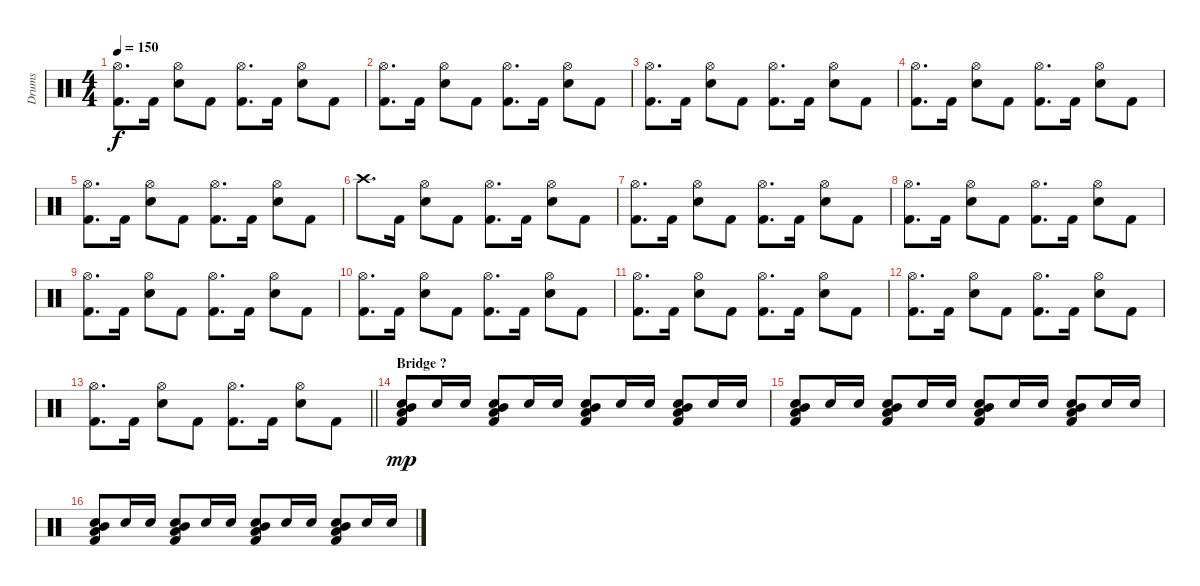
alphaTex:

\track ("Drums" "Drums") {instrument percussion}
\staff {score}
\articulation defaults
\ts (4 4)
\tempo 150
\clef neutral
\ks c
("Kick (hit) 2" "Hi-Hat (open)").8{d dy f} "Kick (hit) 2".16 ("Snare (hit) 2" "Hi-Hat (open)").8 "Kick (hit) 2".8 ("Kick (hit) 2" "Hi-Hat (open)").8{d} "Kick (hit) 2".16 ("Snare (hit) 2" "Hi-Hat (open)").8 "Kick (hit) 2".8 |
("Kick (hit) 2" "Hi-Hat (open)").8{d} "Kick (hit) 2".16 ("Snare (hit) 2" "Hi-Hat (open)").8 "Kick (hit) 2".8 ("Kick (hit) 2" "Hi-Hat (open)").8{d} "Kick (hit) 2".16 ("Snare (hit) 2" "Hi-Hat (open)").8 "Kick (hit) 2".8 |
("Kick (hit) 2" "Hi-Hat (open)").8{d} "Kick (hit) 2".16 ("Snare (hit) 2" "Hi-Hat (open)").8 "Kick (hit) 2".8 ("Kick (hit) 2" "Hi-Hat (open)").8{d} "Kick (hit) 2".16 ("Snare (hit) 2" "Hi-Hat (open)").8 "Kick (hit) 2".8 |
("Kick (hit) 2" "Hi-Hat (open)").8{d} "Kick (hit) 2".16 ("Snare (hit) 2" "Hi-Hat (open)").8 "Kick (hit) 2".8 ("Kick (hit) 2" "Hi-Hat (open)").8{d} "Kick (hit) 2".16 ("Snare (hit) 2" "Hi-Hat (open)").8 "Kick (hit) 2".8 |
("Kick (hit) 2" "Hi-Hat (open)").8{d} "Kick (hit) 2".16 ("Snare (hit) 2" "Hi-Hat (open)").8 "Kick (hit) 2".8 ("Kick (hit) 2" "Hi-Hat (open)").8{d} "Kick (hit) 2".16 ("Snare (hit) 2" "Hi-Hat (open)").8 "Kick (hit) 2".8 |
"Crash high (hit)".8{d} "Kick (hit) 2".16 ("Snare (hit) 2" "Hi-Hat (open)").8 "Kick (hit) 2".8 ("Kick (hit) 2" "Hi-Hat (open)").8{d} "Kick (hit) 2".16 ("Snare (hit) 2" "Hi-Hat (open)").8 "Kick (hit) 2".8 |
("Kick (hit) 2" "Hi-Hat (open)").8{d} "Kick (hit) 2".16 ("Snare (hit) 2" "Hi-Hat (open)").8 "Kick (hit) 2".8 ("Kick (hit) 2" "Hi-Hat (open)").8{d} "Kick (hit) 2".16 ("Snare (hit) 2" "Hi-Hat (open)").8 "Kick (hit) 2".8 |
("Kick (hit) 2" "Hi-Hat (open)").8{d} "Kick (hit) 2".16 ("Snare (hit) 2" "Hi-Hat (open)").8 "Kick (hit) 2".8 ("Kick (hit) 2" "Hi-Hat (open)").8{d} "Kick (hit) 2".16 ("Snare (hit) 2" "Hi-Hat (open)").8 "Kick (hit) 2".8 |
("Kick (hit) 2" "Hi-Hat (open)").8{d} "Kick (hit) 2".16 ("Snare (hit) 2" "Hi-Hat (open)").8 "Kick (hit) 2".8 ("Kick (hit) 2" "Hi-Hat (open)").8{d} "Kick (hit) 2".16 ("Snare (hit) 2" "Hi-Hat (open)").8 "Kick (hit) 2".8 |
("Kick (hit) 2" "Hi-Hat (open)").8{d} "Kick (hit) 2".16 ("Snare (hit) 2" "Hi-Hat (open)").8 "Kick (hit) 2".8 ("Kick (hit) 2" "Hi-Hat (open)").8{d} "Kick (hit) 2".16 ("Snare (hit) 2" "Hi-Hat (open)").8 "Kick (hit) 2".8 |
("Kick (hit) 2" "Hi-Hat (open)").8{d} "Kick (hit) 2".16 ("Snare (hit) 2" "Hi-Hat (open)").8 "Kick (hit) 2".8 ("Kick (hit) 2" "Hi-Hat (open)").8{d} "Kick (hit) 2".16 ("Snare (hit) 2" "Hi-Hat (open)").8 "Kick (hit) 2".8 |
("Kick (hit) 2" "Hi-Hat (open)").8{d} "Kick (hit) 2".16 ("Snare (hit) 2" "Hi-Hat (open)").8 "Kick (hit) 2".8 ("Kick (hit) 2" "Hi-Hat (open)").8{d} "Kick (hit) 2".16 ("Snare (hit) 2" "Hi-Hat (open)").8 "Kick (hit) 2".8 |
\barLineRight lightlight
("Kick (hit) 2" "Hi-Hat (open)").8{d} "Kick (hit) 2".16 ("Snare (hit) 2" "Hi-Hat (open)").8 "Kick (hit) 2".8 ("Kick (hit) 2" "Hi-Hat (open)").8{d} "Kick (hit) 2".16 ("Snare (hit) 2" "Hi-Hat (open)").8 "Kick (hit) 2".8 |
\section ("" "Bridge ?")
("Kick (hit) 2" "Low Tom (hit)" "Mid Tom (hit)" "Snare (hit) 2").8{dy mp} "Snare (hit) 2".16 "Snare (hit) 2".16 ("Kick (hit) 2" "Low Tom (hit)" "Mid Tom (hit)" "Snare (hit) 2").8 "Snare (hit) 2".16 "Snare (hit) 2".16 ("Kick (hit) 2" "Low Tom (hit)" "Mid Tom (hit)" "Snare (hit) 2").8 "Snare (hit) 2".16 "Snare (hit) 2".16 ("Kick (hit) 2" "Low Tom (hit)" "Mid Tom (hit)" "Snare (hit) 2").8 "Snare (hit) 2".16 "Snare (hit) 2".16 |
("Kick (hit) 2" "Low Tom (hit)" "Mid Tom (hit)" "Snare (hit) 2").8 "Snare (hit) 2".16 "Snare (hit) 2".16 ("Kick (hit) 2" "Low Tom (hit)" "Mid Tom (hit)" "Snare (hit) 2").8 "Snare (hit) 2".16 "Snare (hit) 2".16 ("Kick (hit) 2" "Low Tom (hit)" "Mid Tom (hit)" "Snare (hit) 2").8 "Snare (hit) 2".16 "Snare (hit) 2".16 ("Kick (hit) 2" "Low Tom (hit)" "Mid Tom (hit)" "Snare (hit) 2").8 "Snare (hit) 2".16 "Snare (hit) 2".16 |
("Kick (hit) 2" "Low Tom (hit)" "Mid Tom (hit)" "Snare (hit) 2").8 "Snare (hit) 2".16 "Snare (hit) 2".16 ("Kick (hit) 2" "Low Tom (hit)" "Mid Tom (hit)" "Snare (hit) 2").8 "Snare (hit) 2".16 "Snare (hit) 2".16 ("Kick (hit) 2" "Low Tom (hit)" "Mid Tom (hit)" "Snare (hit) 2").8 "Snare (hit) 2".16 "Snare (hit) 2".16 ("Kick (hit) 2" "Low Tom (hit)" "Mid Tom (hit)" "Snare (hit) 2").8 "Snare (hit) 2".16 "Snare (hit) 2".16
